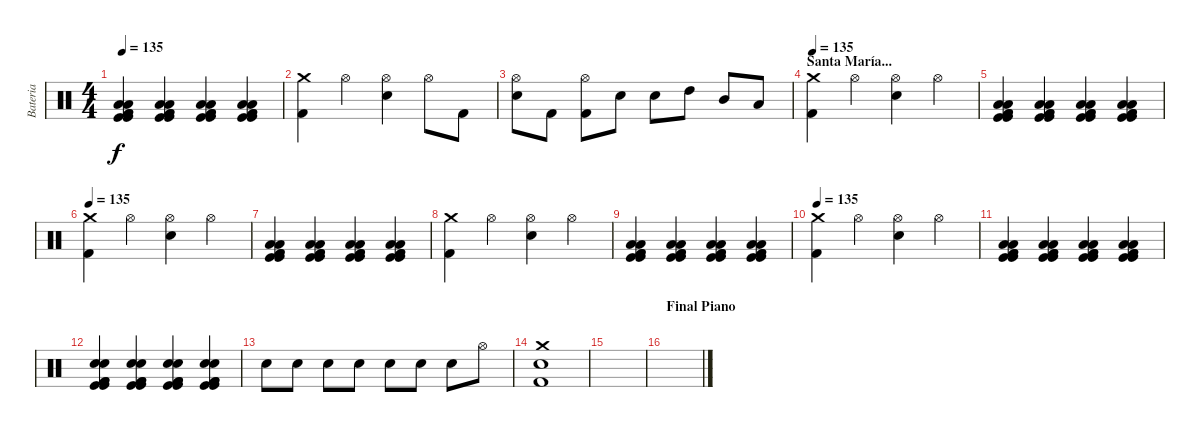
\track ("Bateria" "Bateria") {instrument percussion}
\staff {score}
\articulation defaults
\ts (4 4)
\tempo 135
\clef neutral
\ks c
("Low Floor Tom (hit)" "Kick (hit)" "Kick (hit)" "Kick (hit) 2" "Kick (hit) 2" "Low Floor Tom (hit)").4{dy f} ("Low Floor Tom (hit)" "Kick (hit)" "Kick (hit)" "Kick (hit) 2" "Kick (hit) 2" "Low Floor Tom (hit)").4 ("Low Floor Tom (hit)" "Kick (hit)" "Kick (hit)" "Kick (hit) 2" "Kick (hit) 2" "Low Floor Tom (hit)").4 ("Low Floor Tom (hit)" "Kick (hit)" "Kick (hit)" "Kick (hit) 2" "Kick (hit) 2" "Low Floor Tom (hit)").4 |
("Kick (hit) 2" "Crash medium (hit)").4 "Hi-Hat (open)".4 ("Hi-Hat (open)" "Snare (hit) 2").4 "Hi-Hat (open)".8 "Kick (hit) 2".8 |
("Hi-Hat (open)" "Snare (hit) 2").8 "Kick (hit) 2".8 ("Kick (hit) 2" "Hi-Hat (open)").8 "Snare (hit) 2".8 "Snare (hit) 2".8 "High Tom (hit)".8 "Mid Tom (hit)".8 "Low Tom (hit)".8 |
\section ("" "Santa María...")
\tempo 140
\tempo 135
("Kick (hit) 2" "Crash medium (hit)").4 "Hi-Hat (open)".4 ("Hi-Hat (open)" "Snare (hit) 2").4 "Hi-Hat (open)".4 |
("Low Floor Tom (hit)" "Kick (hit)" "Kick (hit)" "Kick (hit) 2" "Kick (hit) 2" "Low Floor Tom (hit)").4 ("Low Floor Tom (hit)" "Kick (hit)" "Kick (hit)" "Kick (hit) 2" "Kick (hit) 2" "Low Floor Tom (hit)").4 ("Low Floor Tom (hit)" "Kick (hit)" "Kick (hit)" "Kick (hit) 2" "Kick (hit) 2" "Low Floor Tom (hit)").4 ("Low Floor Tom (hit)" "Kick (hit)" "Kick (hit)" "Kick (hit) 2" "Kick (hit) 2" "Low Floor Tom (hit)").4 |
\tempo 135
("Kick (hit) 2" "Crash medium (hit)").4 "Hi-Hat (open)".4 ("Hi-Hat (open)" "Snare (hit) 2").4 "Hi-Hat (open)".4 |
("Low Floor Tom (hit)" "Kick (hit)" "Kick (hit)" "Kick (hit) 2" "Kick (hit) 2" "Low Floor Tom (hit)").4 ("Low Floor Tom (hit)" "Kick (hit)" "Kick (hit)" "Kick (hit) 2" "Kick (hit) 2" "Low Floor Tom (hit)").4 ("Low Floor Tom (hit)" "Kick (hit)" "Kick (hit)" "Kick (hit) 2" "Kick (hit) 2" "Low Floor Tom (hit)").4 ("Low Floor Tom (hit)" "Kick (hit)" "Kick (hit)" "Kick (hit) 2" "Kick (hit) 2" "Low Floor Tom (hit)").4 |
("Kick (hit) 2" "Crash medium (hit)").4 "Hi-Hat (open)".4 ("Hi-Hat (open)" "Snare (hit) 2").4 "Hi-Hat (open)".4 |
("Low Floor Tom (hit)" "Kick (hit)" "Kick (hit)" "Kick (hit) 2" "Kick (hit) 2" "Low Floor Tom (hit)").4 ("Low Floor Tom (hit)" "Kick (hit)" "Kick (hit)" "Kick (hit) 2" "Kick (hit) 2" "Low Floor Tom (hit)").4 ("Low Floor Tom (hit)" "Kick (hit)" "Kick (hit)" "Kick (hit) 2" "Kick (hit) 2" "Low Floor Tom (hit)").4 ("Low Floor Tom (hit)" "Kick (hit)" "Kick (hit)" "Kick (hit) 2" "Kick (hit) 2" "Low Floor Tom (hit)").4 |
\tempo 135
("Kick (hit) 2" "Crash medium (hit)").4 "Hi-Hat (open)".4 ("Hi-Hat (open)" "Snare (hit) 2").4 "Hi-Hat (open)".4 |
("Low Floor Tom (hit)" "Kick (hit)" "Kick (hit)" "Kick (hit) 2" "Kick (hit) 2" "Low Floor Tom (hit)").4 ("Low Floor Tom (hit)" "Kick (hit)" "Kick (hit)" "Kick (hit) 2" "Kick (hit) 2" "Low Floor Tom (hit)").4 ("Low Floor Tom (hit)" "Kick (hit)" "Kick (hit)" "Kick (hit) 2" "Kick (hit) 2" "Low Floor Tom (hit)").4 ("Low Floor Tom (hit)" "Kick (hit)" "Kick (hit)" "Kick (hit) 2" "Kick (hit) 2" "Low Floor Tom (hit)").4 |
("Snare (hit) 2" "Kick (hit)" "Kick (hit)" "Kick (hit) 2" "Kick (hit) 2" "Snare (hit) 2").4 ("Snare (hit) 2" "Kick (hit)" "Kick (hit)" "Kick (hit) 2" "Kick (hit) 2" "Snare (hit) 2").4 ("Snare (hit) 2" "Kick (hit)" "Kick (hit)" "Kick (hit) 2" "Kick (hit) 2" "Snare (hit) 2").4 ("Snare (hit) 2" "Kick (hit)" "Kick (hit)" "Kick (hit) 2" "Kick (hit) 2" "Snare (hit) 2").4 |
"Snare (hit) 2".8 "Snare (hit) 2".8 "Snare (hit) 2".8 "Snare (hit) 2".8 "Snare (hit) 2".8 "Snare (hit) 2".8 "Snare (hit) 2".8 "Hi-Hat (open)".8 |
("Snare (hit) 2" "Crash medium (hit)" "Kick (hit) 2").1 |
|
\section ("" "Final Piano")
